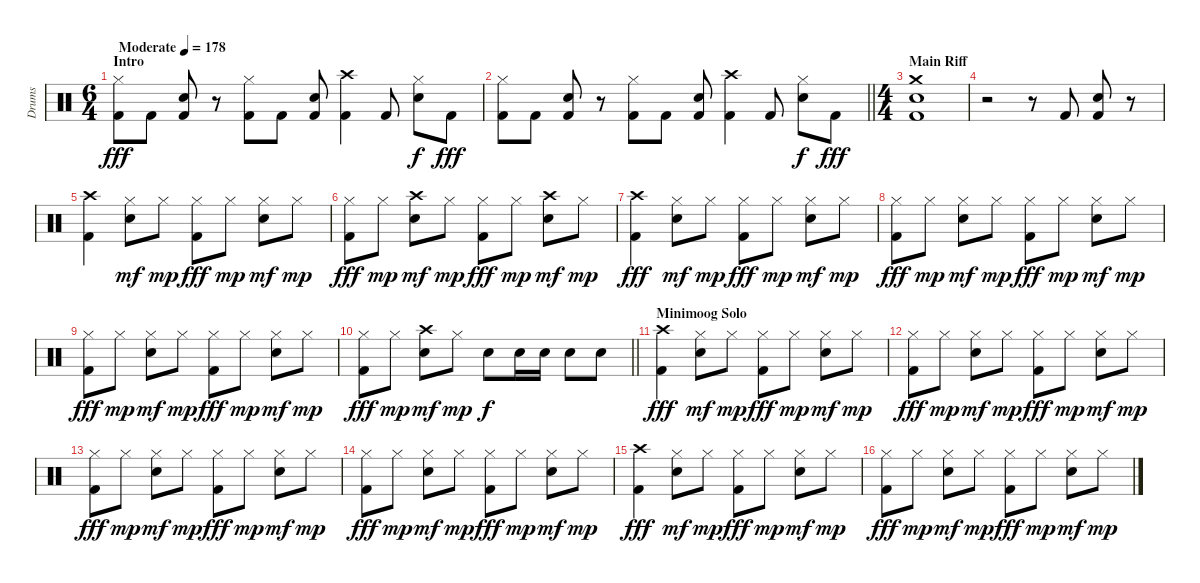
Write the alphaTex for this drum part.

\track ("Drums" "Drums") {instrument percussion}
\staff {score}
\articulation defaults
\ts (6 4)
\section ("" "Intro")
\tempo (178 "Moderate")
\clef neutral
\ks c
("Hi-Hat (closed)" "Kick (hit) 2").8{dy fff} "Kick (hit) 2".8 ("Electric Snare (hit)" "Kick (hit) 2").8 r.8 ("Hi-Hat (closed)" "Kick (hit) 2").8 "Kick (hit) 2".8 ("Electric Snare (hit)" "Kick (hit) 2").8 ("Crash high (hit)" "Kick (hit) 2").4 "Kick (hit) 2".8 ("Hi-Hat (closed)" "Electric Snare (hit)").8{dy f} "Kick (hit) 2".8{dy fff} |
\barLineRight lightlight
("Hi-Hat (closed)" "Kick (hit) 2").8 "Kick (hit) 2".8 ("Electric Snare (hit)" "Kick (hit) 2").8 r.8 ("Hi-Hat (closed)" "Kick (hit) 2").8 "Kick (hit) 2".8 ("Electric Snare (hit)" "Kick (hit) 2").8 ("Crash high (hit)" "Kick (hit) 2").4 "Kick (hit) 2".8 ("Hi-Hat (closed)" "Electric Snare (hit)").8{dy f} "Kick (hit) 2".8{dy fff} |
\ts (4 4)
\section ("" "Main Riff")
("Crash medium (hit)" "Electric Snare (hit)" "Kick (hit) 2").1 |
r.2 r.8 "Kick (hit) 2".8 ("Electric Snare (hit)" "Kick (hit) 2").8 r.8 |
("Crash high (hit)" "Kick (hit) 2").4 ("Hi-Hat (closed)" "Electric Snare (hit)").8{dy mf} "Hi-Hat (closed)".8{dy mp} ("Hi-Hat (closed)" "Kick (hit) 2").8{dy fff} "Hi-Hat (closed)".8{dy mp} ("Hi-Hat (closed)" "Electric Snare (hit)").8{dy mf} "Hi-Hat (closed)".8{dy mp} |
("Hi-Hat (closed)" "Kick (hit) 2").8{dy fff} "Hi-Hat (closed)".8{dy mp} ("Crash high (hit)" "Electric Snare (hit)").8{dy mf} "Hi-Hat (closed)".8{dy mp} ("Hi-Hat (closed)" "Kick (hit) 2").8{dy fff} "Hi-Hat (closed)".8{dy mp} ("Crash high (hit)" "Electric Snare (hit)").8{dy mf} "Hi-Hat (closed)".8{dy mp} |
("Crash high (hit)" "Kick (hit) 2").4{dy fff} ("Hi-Hat (closed)" "Electric Snare (hit)").8{dy mf} "Hi-Hat (closed)".8{dy mp} ("Hi-Hat (closed)" "Kick (hit) 2").8{dy fff} "Hi-Hat (closed)".8{dy mp} ("Hi-Hat (closed)" "Electric Snare (hit)").8{dy mf} "Hi-Hat (closed)".8{dy mp} |
("Hi-Hat (closed)" "Kick (hit) 2").8{dy fff} "Hi-Hat (closed)".8{dy mp} ("Hi-Hat (closed)" "Electric Snare (hit)").8{dy mf} "Hi-Hat (closed)".8{dy mp} ("Hi-Hat (closed)" "Kick (hit) 2").8{dy fff} "Hi-Hat (closed)".8{dy mp} ("Hi-Hat (closed)" "Electric Snare (hit)").8{dy mf} "Hi-Hat (closed)".8{dy mp} |
("Hi-Hat (closed)" "Kick (hit) 2").8{dy fff} "Hi-Hat (closed)".8{dy mp} ("Hi-Hat (closed)" "Electric Snare (hit)").8{dy mf} "Hi-Hat (closed)".8{dy mp} ("Hi-Hat (closed)" "Kick (hit) 2").8{dy fff} "Hi-Hat (closed)".8{dy mp} ("Hi-Hat (closed)" "Electric Snare (hit)").8{dy mf} "Hi-Hat (closed)".8{dy mp} |
\barLineRight lightlight
("Hi-Hat (closed)" "Kick (hit) 2").8{dy fff} "Hi-Hat (closed)".8{dy mp} ("Crash high (hit)" "Electric Snare (hit)").8{dy mf} "Hi-Hat (closed)".8{dy mp} "Snare (hit) 2".8{dy f} "Snare (hit) 2".16 "Snare (hit) 2".16 "Snare (hit) 2".8 "Snare (hit) 2".8 |
\section ("" "Minimoog Solo")
("Crash high (hit)" "Kick (hit) 2").4{dy fff} ("Hi-Hat (closed)" "Electric Snare (hit)").8{dy mf} "Hi-Hat (closed)".8{dy mp} ("Hi-Hat (closed)" "Kick (hit) 2").8{dy fff} "Hi-Hat (closed)".8{dy mp} ("Hi-Hat (closed)" "Electric Snare (hit)").8{dy mf} "Hi-Hat (closed)".8{dy mp} |
("Hi-Hat (closed)" "Kick (hit) 2").8{dy fff} "Hi-Hat (closed)".8{dy mp} ("Hi-Hat (closed)" "Electric Snare (hit)").8{dy mf} "Hi-Hat (closed)".8{dy mp} ("Hi-Hat (closed)" "Kick (hit) 2").8{dy fff} "Hi-Hat (closed)".8{dy mp} ("Hi-Hat (closed)" "Electric Snare (hit)").8{dy mf} "Hi-Hat (closed)".8{dy mp} |
("Hi-Hat (closed)" "Kick (hit) 2").8{dy fff} "Hi-Hat (closed)".8{dy mp} ("Hi-Hat (closed)" "Electric Snare (hit)").8{dy mf} "Hi-Hat (closed)".8{dy mp} ("Hi-Hat (closed)" "Kick (hit) 2").8{dy fff} "Hi-Hat (closed)".8{dy mp} ("Hi-Hat (closed)" "Electric Snare (hit)").8{dy mf} "Hi-Hat (closed)".8{dy mp} |
("Hi-Hat (closed)" "Kick (hit) 2").8{dy fff} "Hi-Hat (closed)".8{dy mp} ("Hi-Hat (closed)" "Electric Snare (hit)").8{dy mf} "Hi-Hat (closed)".8{dy mp} ("Hi-Hat (closed)" "Kick (hit) 2").8{dy fff} "Hi-Hat (closed)".8{dy mp} ("Hi-Hat (closed)" "Electric Snare (hit)").8{dy mf} "Hi-Hat (closed)".8{dy mp} |
("Crash high (hit)" "Kick (hit) 2").4{dy fff} ("Hi-Hat (closed)" "Electric Snare (hit)").8{dy mf} "Hi-Hat (closed)".8{dy mp} ("Hi-Hat (closed)" "Kick (hit) 2").8{dy fff} "Hi-Hat (closed)".8{dy mp} ("Hi-Hat (closed)" "Electric Snare (hit)").8{dy mf} "Hi-Hat (closed)".8{dy mp} |
("Hi-Hat (closed)" "Kick (hit) 2").8{dy fff} "Hi-Hat (closed)".8{dy mp} ("Hi-Hat (closed)" "Electric Snare (hit)").8{dy mf} "Hi-Hat (closed)".8{dy mp} ("Hi-Hat (closed)" "Kick (hit) 2").8{dy fff} "Hi-Hat (closed)".8{dy mp} ("Hi-Hat (closed)" "Electric Snare (hit)").8{dy mf} "Hi-Hat (closed)".8{dy mp}
